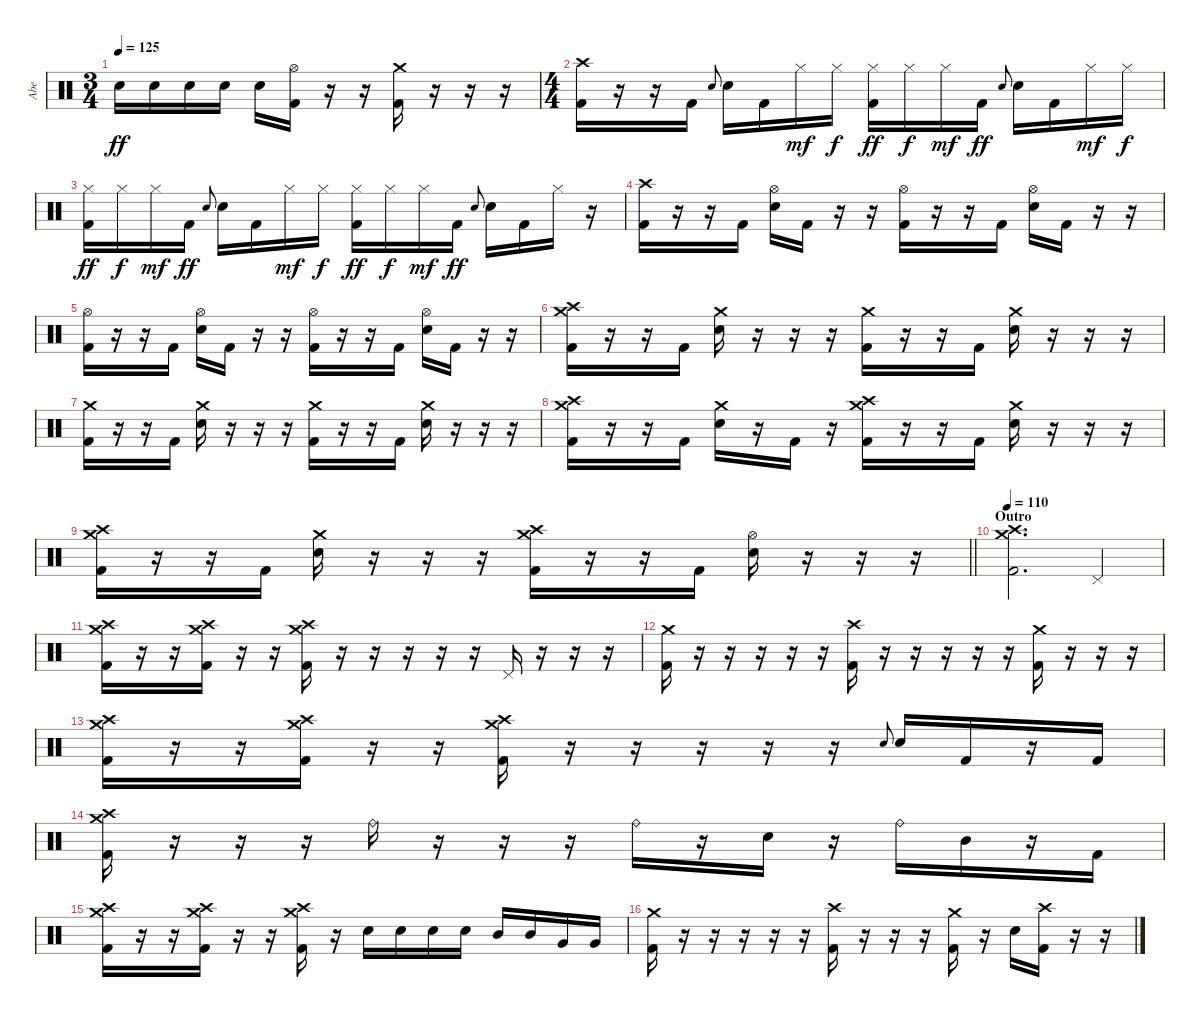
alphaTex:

\track ("Abe" "Abe") {instrument percussion}
\staff {score}
\articulation defaults
\ts (3 4)
\tempo 125
\clef neutral
\ks c "Electric Snare (hit)".16{dy ff} "Electric Snare (hit)".16 "Electric Snare (hit)".16 "Electric Snare (hit)".16 "Electric Snare (hit)".16
("Hi-Hat (open)" "Kick (hit) 2").16 r.16 r.16 ("Crash medium (hit)" "Kick (hit) 2").16 r.16 r.16 r.16 |
\ts (4 4)
("Crash high (hit)" "Kick (hit) 2").16 r.16 r.16 "Kick (hit) 2".16 "Electric Snare (hit)".8{gr onbeat} "Electric Snare (hit)".16 "Kick (hit) 2".16 "Hi-Hat (closed)".16{dy mf} "Hi-Hat (closed)".16{dy f} ("Hi-Hat (closed)" "Kick (hit) 2").16{dy ff} "Hi-Hat (closed)".16{dy f} "Hi-Hat (closed)".16{dy mf} "Kick (hit) 2".16{dy ff} "Electric Snare (hit)".8{gr onbeat} "Electric Snare (hit)".16 "Kick (hit) 2".16 "Hi-Hat (closed)".16{dy mf} "Hi-Hat (closed)".16{dy f} |
("Hi-Hat (closed)" "Kick (hit) 2").16{dy ff} "Hi-Hat (closed)".16{dy f} "Hi-Hat (closed)".16{dy mf} "Kick (hit) 2".16{dy ff} "Electric Snare (hit)".8{gr onbeat} "Electric Snare (hit)".16 "Kick (hit) 2".16 "Hi-Hat (closed)".16{dy mf} "Hi-Hat (closed)".16{dy f} ("Hi-Hat (closed)" "Kick (hit) 2").16{dy ff} "Hi-Hat (closed)".16{dy f} "Hi-Hat (closed)".16{dy mf} "Kick (hit) 2".16{dy ff} "Electric Snare (hit)".8{gr onbeat} "Electric Snare (hit)".16 "Kick (hit) 2".16 "Hi-Hat (closed)".16 r.16 |
("Crash high (hit)" "Kick (hit) 2").16 r.16 r.16 "Kick (hit) 2".16 ("Hi-Hat (open)" "Electric Snare (hit)").16 "Kick (hit) 2".16 r.16 r.16 ("Hi-Hat (open)" "Kick (hit) 2").16 r.16 r.16 "Kick (hit) 2".16 ("Hi-Hat (open)" "Electric Snare (hit)").16 "Kick (hit) 2".16 r.16 r.16 |
("Hi-Hat (open)" "Kick (hit) 2").16 r.16 r.16 "Kick (hit) 2".16 ("Hi-Hat (open)" "Electric Snare (hit)").16 "Kick (hit) 2".16 r.16 r.16 ("Hi-Hat (open)" "Kick (hit) 2").16 r.16 r.16 "Kick (hit) 2".16 ("Hi-Hat (open)" "Electric Snare (hit)").16 "Kick (hit) 2".16 r.16 r.16 |
("Crash medium (hit)" "Crash high (hit)" "Kick (hit) 2").16 r.16 r.16 "Kick (hit) 2".16 ("Crash medium (hit)" "Electric Snare (hit)").16 r.16 r.16 r.16 ("Crash medium (hit)" "Kick (hit) 2").16 r.16 r.16 "Kick (hit) 2".16 ("Crash medium (hit)" "Electric Snare (hit)").16 r.16 r.16 r.16 |
("Crash medium (hit)" "Kick (hit) 2").16 r.16 r.16 "Kick (hit) 2".16 ("Crash medium (hit)" "Electric Snare (hit)").16 r.16 r.16 r.16 ("Crash medium (hit)" "Kick (hit) 2").16 r.16 r.16 "Kick (hit) 2".16 ("Crash medium (hit)" "Electric Snare (hit)").16 r.16 r.16 r.16 |
("Crash medium (hit)" "Crash high (hit)" "Kick (hit) 2").16 r.16 r.16 "Kick (hit) 2".16 ("Crash medium (hit)" "Electric Snare (hit)").16 r.16 "Kick (hit) 2".16 r.16 ("Crash medium (hit)" "Crash high (hit)" "Kick (hit) 2").16 r.16 r.16 "Kick (hit) 2".16 ("Crash medium (hit)" "Electric Snare (hit)").16 r.16 r.16 r.16 |
\barLineRight lightlight
("Crash medium (hit)" "Crash high (hit)" "Kick (hit) 2").16 r.16 r.16 "Kick (hit) 2".16 ("Crash medium (hit)" "Electric Snare (hit)").16 r.16 r.16 r.16 ("Crash medium (hit)" "Crash high (hit)" "Kick (hit) 2").16 r.16 r.16 "Kick (hit) 2".16 ("Hi-Hat (open)" "Electric Snare (hit)").16 r.16 r.16 r.16 |
\section ("" "Outro")
\tempo 110
("Crash medium (hit)" "Crash high (hit)" "Kick (hit) 2").2{d} "Pedal Hi-Hat (hit)".4 |
("Crash medium (hit)" "Crash high (hit)" "Kick (hit) 2").16 r.16 r.16 ("Crash medium (hit)" "Crash high (hit)" "Kick (hit) 2").16 r.16 r.16 ("Crash medium (hit)" "Crash high (hit)" "Kick (hit) 2").16 r.16 r.16 r.16 r.16 r.16 "Pedal Hi-Hat (hit)".16 r.16 r.16 r.16 |
("Crash medium (hit)" "Kick (hit) 2").16 r.16 r.16 r.16 r.16 r.16 ("Crash high (hit)" "Kick (hit) 2").16 r.16 r.16 r.16 r.16 r.16 ("Crash medium (hit)" "Kick (hit) 2").16 r.16 r.16 r.16 |
("Crash medium (hit)" "Crash high (hit)" "Kick (hit) 2").16 r.16 r.16 ("Crash medium (hit)" "Crash high (hit)" "Kick (hit) 2").16 r.16 r.16 ("Crash medium (hit)" "Crash high (hit)" "Kick (hit) 2").16 r.16 r.16 r.16 r.16 r.16 "Electric Snare (hit)".8{gr onbeat} "Electric Snare (hit)".16 "Kick (hit) 2".16 r.16 "Kick (hit) 2".16 |
("Crash medium (hit)" "Crash high (hit)" "Kick (hit) 2").16 r.16 r.16 r.16 "Ride (bell)".16 r.16 r.16 r.16 "Ride (bell)".16 r.16 "Electric Snare (hit)".16 r.16 "Ride (bell)".16 "Mid Tom (hit)".16 r.16 "Kick (hit) 2".16 |
("Crash medium (hit)" "Crash high (hit)" "Kick (hit) 2").16 r.16 r.16 ("Crash medium (hit)" "Crash high (hit)" "Kick (hit) 2").16 r.16 r.16 ("Crash medium (hit)" "Crash high (hit)" "Kick (hit) 2").16 r.16 "Electric Snare (hit)".16 "Electric Snare (hit)".16 "Electric Snare (hit)".16 "Electric Snare (hit)".16 "Mid Tom (hit)".16 "Mid Tom (hit)".16 "Very Low Tom (hit)".16 "Very Low Tom (hit)".16 |
("Crash medium (hit)" "Kick (hit) 2").16 r.16 r.16 r.16 r.16 r.16 ("Crash high (hit)" "Kick (hit) 2").16 r.16 r.16 r.16 ("Crash medium (hit)" "Kick (hit) 2").16 r.16 "Electric Snare (hit)".16 ("Crash high (hit)" "Kick (hit) 2").16 r.16 r.16
